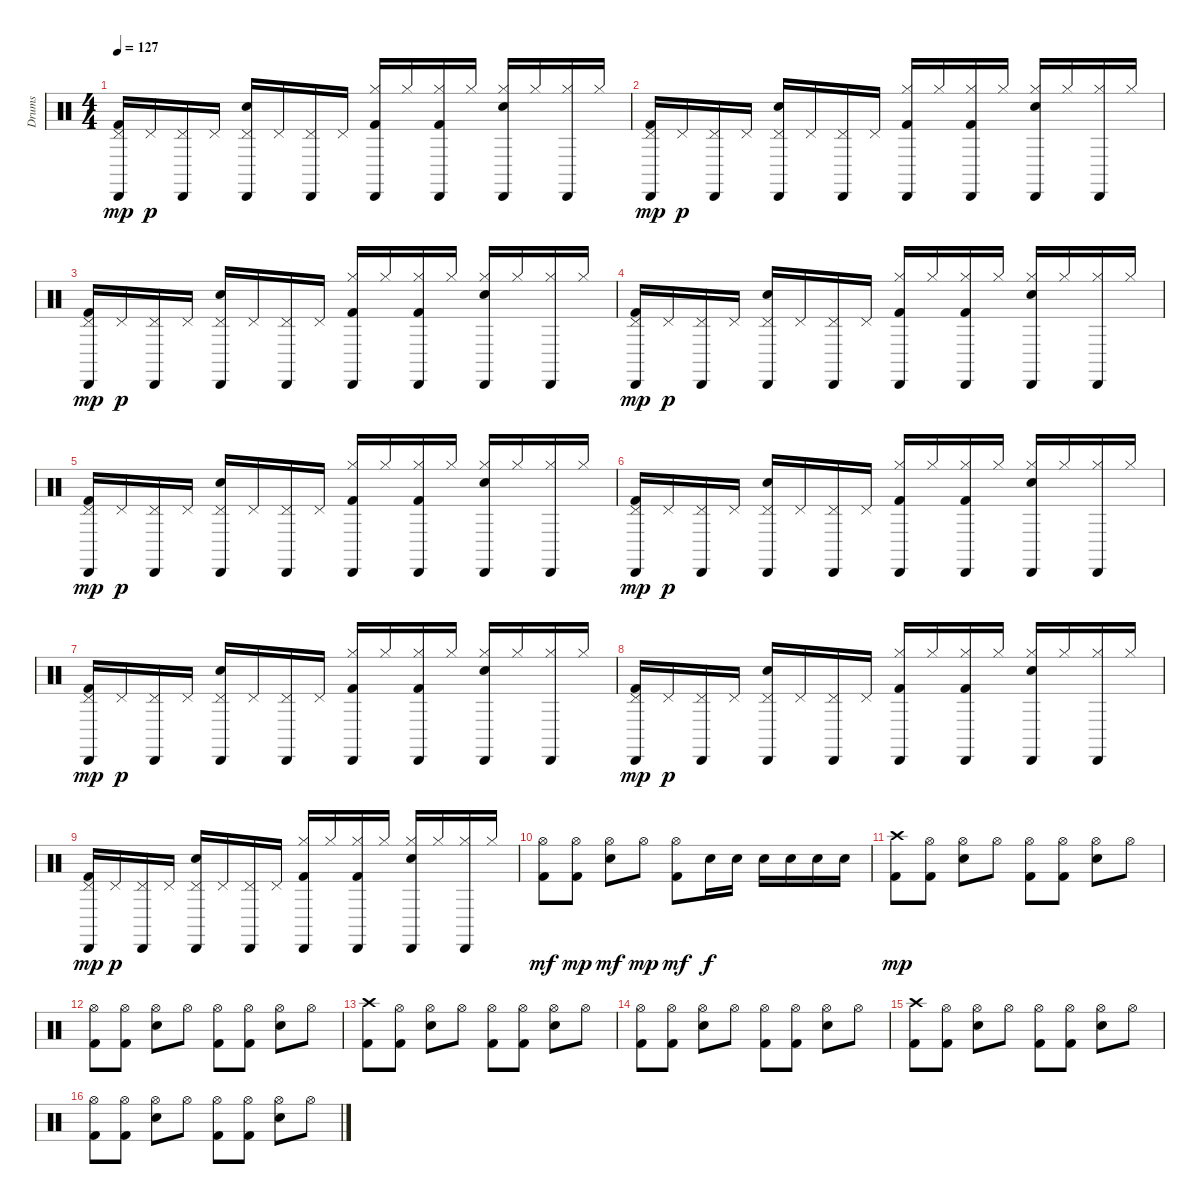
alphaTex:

\track ("Drums" "Drums") {instrument percussion}
\staff {score}
\articulation defaults
\ts (4 4)
\tempo 127
\clef neutral
\ks c
("Cabasa (hit)" "Pedal Hi-Hat (hit)" "Kick (hit) 2").16{dy mp} "Pedal Hi-Hat (hit)".16{dy p} ("Cabasa (hit)" "Pedal Hi-Hat (hit)").16 "Pedal Hi-Hat (hit)".16 ("Cabasa (hit)" "Pedal Hi-Hat (hit)" "Electric Snare (hit)").16 "Pedal Hi-Hat (hit)".16 ("Cabasa (hit)" "Pedal Hi-Hat (hit)").16 "Pedal Hi-Hat (hit)".16 ("Cabasa (hit)" "Hi-Hat (closed)" "Kick (hit) 2").16 "Hi-Hat (closed)".16 ("Cabasa (hit)" "Hi-Hat (closed)" "Kick (hit) 2").16 "Hi-Hat (closed)".16 ("Cabasa (hit)" "Hi-Hat (closed)" "Electric Snare (hit)").16 "Hi-Hat (closed)".16 ("Cabasa (hit)" "Hi-Hat (closed)").16 "Hi-Hat (closed)".16 |
("Cabasa (hit)" "Pedal Hi-Hat (hit)" "Kick (hit) 2").16{dy mp} "Pedal Hi-Hat (hit)".16{dy p} ("Cabasa (hit)" "Pedal Hi-Hat (hit)").16 "Pedal Hi-Hat (hit)".16 ("Cabasa (hit)" "Pedal Hi-Hat (hit)" "Electric Snare (hit)").16 "Pedal Hi-Hat (hit)".16 ("Cabasa (hit)" "Pedal Hi-Hat (hit)").16 "Pedal Hi-Hat (hit)".16 ("Cabasa (hit)" "Hi-Hat (closed)" "Kick (hit) 2").16 "Hi-Hat (closed)".16 ("Cabasa (hit)" "Hi-Hat (closed)" "Kick (hit) 2").16 "Hi-Hat (closed)".16 ("Cabasa (hit)" "Hi-Hat (closed)" "Electric Snare (hit)").16 "Hi-Hat (closed)".16 ("Cabasa (hit)" "Hi-Hat (closed)").16 "Hi-Hat (closed)".16 |
("Cabasa (hit)" "Pedal Hi-Hat (hit)" "Kick (hit) 2").16{dy mp} "Pedal Hi-Hat (hit)".16{dy p} ("Cabasa (hit)" "Pedal Hi-Hat (hit)").16 "Pedal Hi-Hat (hit)".16 ("Cabasa (hit)" "Pedal Hi-Hat (hit)" "Electric Snare (hit)").16 "Pedal Hi-Hat (hit)".16 ("Cabasa (hit)" "Pedal Hi-Hat (hit)").16 "Pedal Hi-Hat (hit)".16 ("Cabasa (hit)" "Hi-Hat (closed)" "Kick (hit) 2").16 "Hi-Hat (closed)".16 ("Cabasa (hit)" "Hi-Hat (closed)" "Kick (hit) 2").16 "Hi-Hat (closed)".16 ("Cabasa (hit)" "Hi-Hat (closed)" "Electric Snare (hit)").16 "Hi-Hat (closed)".16 ("Cabasa (hit)" "Hi-Hat (closed)").16 "Hi-Hat (closed)".16 |
("Cabasa (hit)" "Pedal Hi-Hat (hit)" "Kick (hit) 2").16{dy mp} "Pedal Hi-Hat (hit)".16{dy p} ("Cabasa (hit)" "Pedal Hi-Hat (hit)").16 "Pedal Hi-Hat (hit)".16 ("Cabasa (hit)" "Pedal Hi-Hat (hit)" "Electric Snare (hit)").16 "Pedal Hi-Hat (hit)".16 ("Cabasa (hit)" "Pedal Hi-Hat (hit)").16 "Pedal Hi-Hat (hit)".16 ("Cabasa (hit)" "Hi-Hat (closed)" "Kick (hit) 2").16 "Hi-Hat (closed)".16 ("Cabasa (hit)" "Hi-Hat (closed)" "Kick (hit) 2").16 "Hi-Hat (closed)".16 ("Cabasa (hit)" "Hi-Hat (closed)" "Electric Snare (hit)").16 "Hi-Hat (closed)".16 ("Cabasa (hit)" "Hi-Hat (closed)").16 "Hi-Hat (closed)".16 |
("Cabasa (hit)" "Pedal Hi-Hat (hit)" "Kick (hit) 2").16{dy mp} "Pedal Hi-Hat (hit)".16{dy p} ("Cabasa (hit)" "Pedal Hi-Hat (hit)").16 "Pedal Hi-Hat (hit)".16 ("Cabasa (hit)" "Pedal Hi-Hat (hit)" "Electric Snare (hit)").16 "Pedal Hi-Hat (hit)".16 ("Cabasa (hit)" "Pedal Hi-Hat (hit)").16 "Pedal Hi-Hat (hit)".16 ("Cabasa (hit)" "Hi-Hat (closed)" "Kick (hit) 2").16 "Hi-Hat (closed)".16 ("Cabasa (hit)" "Hi-Hat (closed)" "Kick (hit) 2").16 "Hi-Hat (closed)".16 ("Cabasa (hit)" "Hi-Hat (closed)" "Electric Snare (hit)").16 "Hi-Hat (closed)".16 ("Cabasa (hit)" "Hi-Hat (closed)").16 "Hi-Hat (closed)".16 |
("Cabasa (hit)" "Pedal Hi-Hat (hit)" "Kick (hit) 2").16{dy mp} "Pedal Hi-Hat (hit)".16{dy p} ("Cabasa (hit)" "Pedal Hi-Hat (hit)").16 "Pedal Hi-Hat (hit)".16 ("Cabasa (hit)" "Pedal Hi-Hat (hit)" "Electric Snare (hit)").16 "Pedal Hi-Hat (hit)".16 ("Cabasa (hit)" "Pedal Hi-Hat (hit)").16 "Pedal Hi-Hat (hit)".16 ("Cabasa (hit)" "Hi-Hat (closed)" "Kick (hit) 2").16 "Hi-Hat (closed)".16 ("Cabasa (hit)" "Hi-Hat (closed)" "Kick (hit) 2").16 "Hi-Hat (closed)".16 ("Cabasa (hit)" "Hi-Hat (closed)" "Electric Snare (hit)").16 "Hi-Hat (closed)".16 ("Cabasa (hit)" "Hi-Hat (closed)").16 "Hi-Hat (closed)".16 |
("Cabasa (hit)" "Pedal Hi-Hat (hit)" "Kick (hit) 2").16{dy mp} "Pedal Hi-Hat (hit)".16{dy p} ("Cabasa (hit)" "Pedal Hi-Hat (hit)").16 "Pedal Hi-Hat (hit)".16 ("Cabasa (hit)" "Pedal Hi-Hat (hit)" "Electric Snare (hit)").16 "Pedal Hi-Hat (hit)".16 ("Cabasa (hit)" "Pedal Hi-Hat (hit)").16 "Pedal Hi-Hat (hit)".16 ("Cabasa (hit)" "Hi-Hat (closed)" "Kick (hit) 2").16 "Hi-Hat (closed)".16 ("Cabasa (hit)" "Hi-Hat (closed)" "Kick (hit) 2").16 "Hi-Hat (closed)".16 ("Cabasa (hit)" "Hi-Hat (closed)" "Electric Snare (hit)").16 "Hi-Hat (closed)".16 ("Cabasa (hit)" "Hi-Hat (closed)").16 "Hi-Hat (closed)".16 |
("Cabasa (hit)" "Pedal Hi-Hat (hit)" "Kick (hit) 2").16{dy mp} "Pedal Hi-Hat (hit)".16{dy p} ("Cabasa (hit)" "Pedal Hi-Hat (hit)").16 "Pedal Hi-Hat (hit)".16 ("Cabasa (hit)" "Pedal Hi-Hat (hit)" "Electric Snare (hit)").16 "Pedal Hi-Hat (hit)".16 ("Cabasa (hit)" "Pedal Hi-Hat (hit)").16 "Pedal Hi-Hat (hit)".16 ("Cabasa (hit)" "Hi-Hat (closed)" "Kick (hit) 2").16 "Hi-Hat (closed)".16 ("Cabasa (hit)" "Hi-Hat (closed)" "Kick (hit) 2").16 "Hi-Hat (closed)".16 ("Cabasa (hit)" "Hi-Hat (closed)" "Electric Snare (hit)").16 "Hi-Hat (closed)".16 ("Cabasa (hit)" "Hi-Hat (closed)").16 "Hi-Hat (closed)".16 |
("Cabasa (hit)" "Pedal Hi-Hat (hit)" "Kick (hit) 2").16{dy mp} "Pedal Hi-Hat (hit)".16{dy p} ("Cabasa (hit)" "Pedal Hi-Hat (hit)").16 "Pedal Hi-Hat (hit)".16 ("Cabasa (hit)" "Pedal Hi-Hat (hit)" "Electric Snare (hit)").16 "Pedal Hi-Hat (hit)".16 ("Cabasa (hit)" "Pedal Hi-Hat (hit)").16 "Pedal Hi-Hat (hit)".16 ("Cabasa (hit)" "Hi-Hat (closed)" "Kick (hit) 2").16 "Hi-Hat (closed)".16 ("Cabasa (hit)" "Hi-Hat (closed)" "Kick (hit) 2").16 "Hi-Hat (closed)".16 ("Cabasa (hit)" "Hi-Hat (closed)" "Electric Snare (hit)").16 "Hi-Hat (closed)".16 ("Cabasa (hit)" "Hi-Hat (closed)").16 "Hi-Hat (closed)".16 |
("Hi-Hat (open)" "Kick (hit) 2").8{dy mf} ("Hi-Hat (open)" "Kick (hit) 2").8{dy mp} ("Hi-Hat (open)" "Electric Snare (hit)").8{dy mf} "Hi-Hat (open)".8{dy mp} ("Hi-Hat (open)" "Kick (hit) 2").8{dy mf} "Electric Snare (hit)".16{dy f} "Electric Snare (hit)".16 "Electric Snare (hit)".16 "Electric Snare (hit)".16 "Electric Snare (hit)".16 "Electric Snare (hit)".16 |
("Crash high (hit)" "Kick (hit) 2").8{dy mp} ("Hi-Hat (open)" "Kick (hit) 2").8 ("Hi-Hat (open)" "Electric Snare (hit)").8 "Hi-Hat (open)".8 ("Hi-Hat (open)" "Kick (hit) 2").8 ("Hi-Hat (open)" "Kick (hit) 2").8 ("Hi-Hat (open)" "Electric Snare (hit)").8 "Hi-Hat (open)".8 |
("Hi-Hat (open)" "Kick (hit) 2").8 ("Hi-Hat (open)" "Kick (hit) 2").8 ("Hi-Hat (open)" "Electric Snare (hit)").8 "Hi-Hat (open)".8 ("Hi-Hat (open)" "Kick (hit) 2").8 ("Hi-Hat (open)" "Kick (hit) 2").8 ("Hi-Hat (open)" "Electric Snare (hit)").8 "Hi-Hat (open)".8 |
("Crash high (hit)" "Kick (hit) 2").8 ("Hi-Hat (open)" "Kick (hit) 2").8 ("Hi-Hat (open)" "Electric Snare (hit)").8 "Hi-Hat (open)".8 ("Hi-Hat (open)" "Kick (hit) 2").8 ("Hi-Hat (open)" "Kick (hit) 2").8 ("Hi-Hat (open)" "Electric Snare (hit)").8 "Hi-Hat (open)".8 |
("Hi-Hat (open)" "Kick (hit) 2").8 ("Hi-Hat (open)" "Kick (hit) 2").8 ("Hi-Hat (open)" "Electric Snare (hit)").8 "Hi-Hat (open)".8 ("Hi-Hat (open)" "Kick (hit) 2").8 ("Hi-Hat (open)" "Kick (hit) 2").8 ("Hi-Hat (open)" "Electric Snare (hit)").8 "Hi-Hat (open)".8 |
("Crash high (hit)" "Kick (hit) 2").8 ("Hi-Hat (open)" "Kick (hit) 2").8 ("Hi-Hat (open)" "Electric Snare (hit)").8 "Hi-Hat (open)".8 ("Hi-Hat (open)" "Kick (hit) 2").8 ("Hi-Hat (open)" "Kick (hit) 2").8 ("Hi-Hat (open)" "Electric Snare (hit)").8 "Hi-Hat (open)".8 |
("Hi-Hat (open)" "Kick (hit) 2").8 ("Hi-Hat (open)" "Kick (hit) 2").8 ("Hi-Hat (open)" "Electric Snare (hit)").8 "Hi-Hat (open)".8 ("Hi-Hat (open)" "Kick (hit) 2").8 ("Hi-Hat (open)" "Kick (hit) 2").8 ("Hi-Hat (open)" "Electric Snare (hit)").8 "Hi-Hat (open)".8
